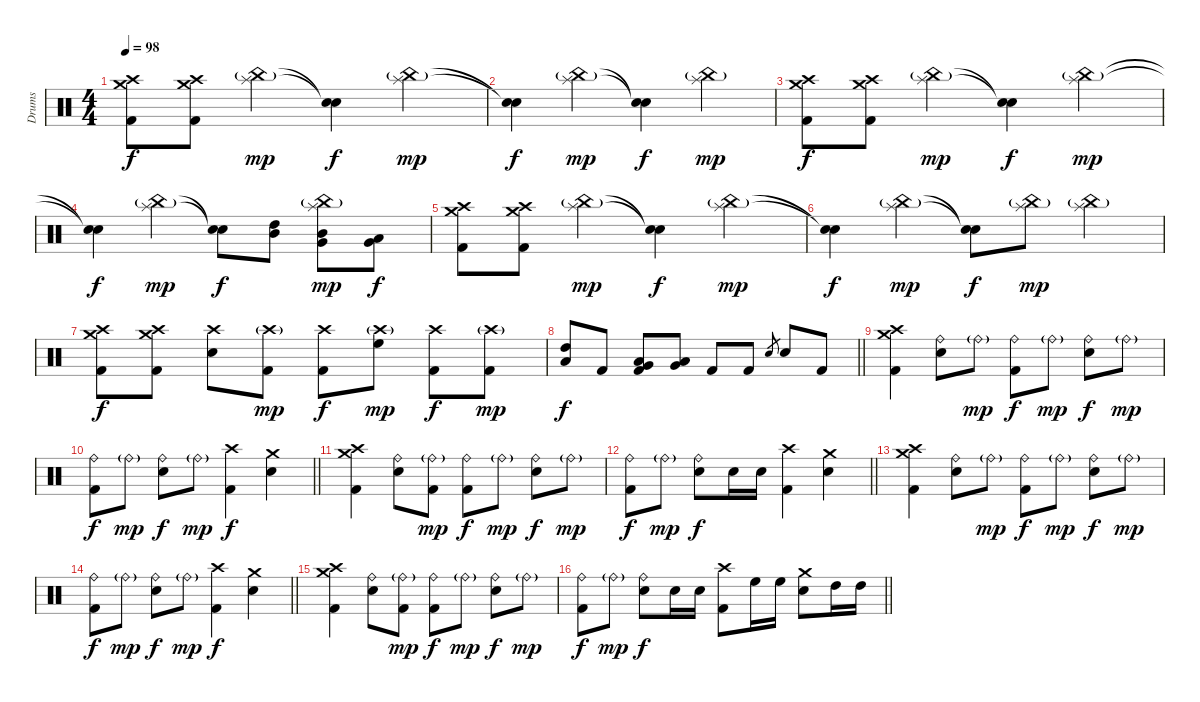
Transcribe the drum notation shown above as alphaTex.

\track ("Drums" "Drums") {instrument percussion}
\staff {score}
\articulation defaults
\ts (4 4)
\tempo 98
\clef neutral
\ks c
("Crash high (hit)" "Crash medium (hit)" "Kick (hit) 2").8{dy f} ("Crash high (hit)" "Crash medium (hit)" "Kick (hit) 2").8 ("China (hit)"{g} "Splash (hit)").4{dy mp} ("Snare (hit)"{t} "Snare (hit)"{t}).4{dy f} ("China (hit)"{g} "Splash (hit)").4{dy mp} |
("Snare (hit)"{t} "Snare (hit)"{t}).4{dy f} ("China (hit)"{g} "Splash (hit)").4{dy mp} ("Snare (hit)"{t} "Snare (hit)"{t}).4{dy f} ("China (hit)"{g} "Splash (hit)").4{dy mp} |
("Crash high (hit)" "Crash medium (hit)" "Kick (hit) 2").8{dy f} ("Crash high (hit)" "Crash medium (hit)" "Kick (hit) 2").8 ("China (hit)"{g} "Splash (hit)").4{dy mp} ("Snare (hit)"{t} "Snare (hit)"{t}).4{dy f} ("China (hit)"{g} "Splash (hit)").4{dy mp} |
("Snare (hit)"{t} "Snare (hit)"{t}).4{dy f} ("China (hit)"{g} "Splash (hit)").4{dy mp} ("Snare (hit)"{t} "Snare (hit)"{t}).8{dy f} ("High Tom (hit)" "Mid Tom (hit)").8 ("China (hit)"{g} "Splash (hit)" "Mid Tom (hit)" "Very Low Tom (hit)").8{dy mp} ("Low Tom (hit)" "Very Low Tom (hit)").8{dy f} |
("Crash high (hit)" "Crash medium (hit)" "Kick (hit) 2").8 ("Crash high (hit)" "Crash medium (hit)" "Kick (hit) 2").8 ("China (hit)"{g} "Splash (hit)").4{dy mp} ("Snare (hit)"{t} "Snare (hit)"{t}).4{dy f} ("China (hit)"{g} "Splash (hit)").4{dy mp} |
("Snare (hit)"{t} "Snare (hit)"{t}).4{dy f} ("China (hit)"{g} "Splash (hit)").4{dy mp} ("Snare (hit)"{t} "Snare (hit)"{t}).8{dy f} ("China (hit)"{g} "Splash (hit)").8{dy mp} ("China (hit)"{g} "Splash (hit)").4 |
("Crash high (hit)" "Crash medium (hit)" "Kick (hit) 2").8{dy f} ("Crash high (hit)" "Crash medium (hit)" "Kick (hit) 2").8 ("Crash high (hit)" "Electric Snare (hit)").8 ("Crash high (hit)"{g} "Kick (hit) 2").8{dy mp} ("Crash high (hit)" "Kick (hit) 2").8{dy f} ("Crash high (hit)"{g} "High Floor Tom (hit)").8{dy mp} ("Crash high (hit)" "Kick (hit) 2").8{dy f} ("Crash high (hit)"{g} "Kick (hit) 2").8{dy mp} |
\barLineRight lightlight
("High Tom (hit)" "Low Tom (hit)").8{dy f} "Kick (hit) 2".8 ("Very Low Tom (hit)" "Low Floor Tom (hit)" "Kick (hit) 2").8 ("Low Tom (hit)" "Very Low Tom (hit)").8 "Kick (hit) 2".8 "Kick (hit) 2".8 "Electric Snare (hit)".8{gr} "Electric Snare (hit)".8 "Kick (hit) 2".8 |
("Crash high (hit)" "Crash medium (hit)" "Kick (hit) 2").4 ("Ride (bell)" "Electric Snare (hit)").8 "Ride (bell)"{g}.8{dy mp} ("Ride (bell)" "Kick (hit) 2").8{dy f} "Ride (bell)"{g}.8{dy mp} ("Ride (bell)" "Electric Snare (hit)").8{dy f} "Ride (bell)"{g}.8{dy mp} |
\barLineRight lightlight
("Ride (bell)" "Kick (hit) 2").8{dy f} "Ride (bell)"{g}.8{dy mp} ("Ride (bell)" "Electric Snare (hit)").8{dy f} "Ride (bell)"{g}.8{dy mp} ("Crash high (hit)" "Kick (hit) 2").4{dy f} ("Crash medium (hit)" "Electric Snare (hit)").4 |
("Crash high (hit)" "Crash medium (hit)" "Kick (hit) 2").4 ("Ride (bell)" "Electric Snare (hit)").8 ("Ride (bell)"{g} "Kick (hit) 2").8{dy mp} ("Ride (bell)" "Kick (hit) 2").8{dy f} "Ride (bell)"{g}.8{dy mp} ("Ride (bell)" "Electric Snare (hit)").8{dy f} "Ride (bell)"{g}.8{dy mp} |
\barLineRight lightlight
("Ride (bell)" "Kick (hit) 2").8{dy f} "Ride (bell)"{g}.8{dy mp} ("Ride (bell)" "Electric Snare (hit)").8{dy f} "Electric Snare (hit)".16 "Electric Snare (hit)".16 ("Crash high (hit)" "Kick (hit) 2").4 ("Crash medium (hit)" "Electric Snare (hit)").4 |
("Crash high (hit)" "Crash medium (hit)" "Kick (hit) 2").4 ("Ride (bell)" "Electric Snare (hit)").8 "Ride (bell)"{g}.8{dy mp} ("Ride (bell)" "Kick (hit) 2").8{dy f} "Ride (bell)"{g}.8{dy mp} ("Ride (bell)" "Electric Snare (hit)").8{dy f} "Ride (bell)"{g}.8{dy mp} |
\barLineRight lightlight
("Ride (bell)" "Kick (hit) 2").8{dy f} "Ride (bell)"{g}.8{dy mp} ("Ride (bell)" "Electric Snare (hit)").8{dy f} "Ride (bell)"{g}.8{dy mp} ("Crash high (hit)" "Kick (hit) 2").4{dy f} ("Crash medium (hit)" "Electric Snare (hit)").4 |
("Crash high (hit)" "Crash medium (hit)" "Kick (hit) 2").4 ("Ride (bell)" "Electric Snare (hit)").8 ("Ride (bell)"{g} "Kick (hit) 2").8{dy mp} ("Ride (bell)" "Kick (hit) 2").8{dy f} "Ride (bell)"{g}.8{dy mp} ("Ride (bell)" "Electric Snare (hit)").8{dy f} "Ride (bell)"{g}.8{dy mp} |
\barLineRight lightlight
("Ride (bell)" "Kick (hit) 2").8{dy f} "Ride (bell)"{g}.8{dy mp} ("Ride (bell)" "Electric Snare (hit)").8{dy f} "Electric Snare (hit)".16 "Electric Snare (hit)".16 ("Crash high (hit)" "Kick (hit) 2").8 "High Floor Tom (hit)".16 "High Floor Tom (hit)".16 ("Crash medium (hit)" "Electric Snare (hit)").8 "High Tom (hit)".16 "High Tom (hit)".16
